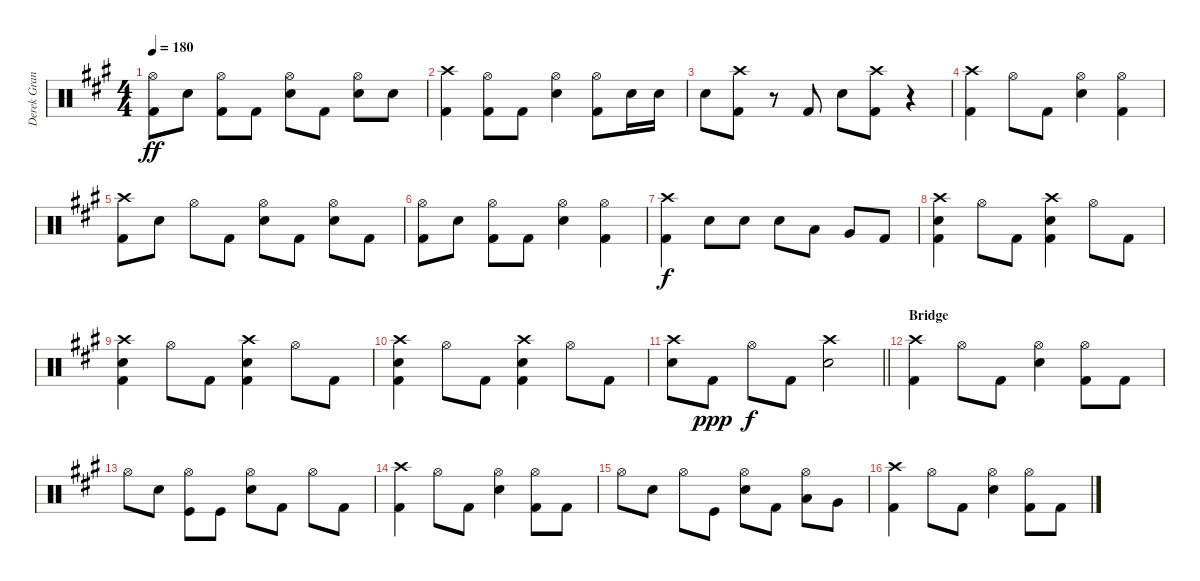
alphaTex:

\track ("Derek Grant - Drums" "Derek Gran") {instrument percussion}
\staff {score}
\articulation defaults
\ts (4 4)
\tempo 180
\clef neutral
\ks a
("Kick (hit) 2" "Hi-Hat (open)").8{dy ff} "Snare (hit) 2".8 ("Kick (hit) 2" "Hi-Hat (open)").8 "Kick (hit) 2".8 ("Snare (hit) 2" "Hi-Hat (open)").8 "Kick (hit) 2".8 ("Snare (hit) 2" "Hi-Hat (open)").8 "Snare (hit) 2".8 |
("Kick (hit) 2" "Crash high (hit)").4 ("Kick (hit) 2" "Hi-Hat (open)").8 "Kick (hit) 2".8 ("Snare (hit) 2" "Hi-Hat (open)").4 ("Kick (hit) 2" "Hi-Hat (open)").8 "Snare (hit) 2".16 "Snare (hit) 2".16 |
"Snare (hit) 2".8 ("Kick (hit) 2" "Crash high (hit)").8 r.8 "Kick (hit) 2".8 "Snare (hit) 2".8 ("Kick (hit) 2" "Crash high (hit)").8 r.4 |
("Kick (hit) 2" "Crash high (hit)").4 "Hi-Hat (open)".8 "Kick (hit) 2".8 ("Snare (hit) 2" "Hi-Hat (open)").4 ("Kick (hit) 2" "Hi-Hat (open)").4 |
("Kick (hit) 2" "Crash high (hit)").8 "Snare (hit) 2".8 "Hi-Hat (open)".8 "Kick (hit) 2".8 ("Snare (hit) 2" "Hi-Hat (open)").8 "Kick (hit) 2".8 ("Snare (hit) 2" "Hi-Hat (open)").8 "Kick (hit) 2".8 |
("Kick (hit) 2" "Hi-Hat (open)").8 "Snare (hit) 2".8 ("Kick (hit) 2" "Hi-Hat (open)").8 "Kick (hit) 2".8 ("Snare (hit) 2" "Hi-Hat (open)").4 ("Kick (hit) 2" "Hi-Hat (open)").4 |
("Crash high (hit)" "Kick (hit) 2").4{dy f} "Snare (hit) 2".8 "Snare (hit) 2".8 "Snare (hit) 2".8 "Low Tom (hit)".8 "Very Low Tom (hit)".8 "Kick (hit) 2".8 |
("Crash high (hit)" "Kick (hit) 2" "Snare (hit) 2").4 "Hi-Hat (open)".8 "Kick (hit) 2".8 ("Crash high (hit)" "Kick (hit) 2" "Snare (hit) 2").4 "Hi-Hat (open)".8 "Kick (hit) 2".8 |
("Crash high (hit)" "Kick (hit) 2" "Snare (hit) 2").4 "Hi-Hat (open)".8 "Kick (hit) 2".8 ("Crash high (hit)" "Kick (hit) 2" "Snare (hit) 2").4 "Hi-Hat (open)".8 "Kick (hit) 2".8 |
("Crash high (hit)" "Kick (hit) 2" "Snare (hit) 2").4 "Hi-Hat (open)".8 "Kick (hit) 2".8 ("Crash high (hit)" "Kick (hit) 2" "Snare (hit) 2").4 "Hi-Hat (open)".8 "Kick (hit) 2".8 |
\barLineRight lightlight
("Crash high (hit)" "Snare (hit) 2").8 "Kick (hit) 2".8{dy ppp} "Hi-Hat (open)".8{dy f} "Kick (hit) 2".8 ("Crash high (hit)" "Snare (hit) 2").2 |
\section ("" "Bridge")
("Kick (hit) 2" "Crash high (hit)").4 "Hi-Hat (open)".8 "Kick (hit) 2".8 ("Snare (hit) 2" "Hi-Hat (open)").4 ("Kick (hit) 2" "Hi-Hat (open)").8 "Kick (hit) 2".8 |
"Hi-Hat (open)".8 "Snare (hit) 2".8 ("Kick (hit)" "Hi-Hat (open)").8 "Kick (hit)".8 ("Hi-Hat (open)" "Snare (hit) 2").8 "Kick (hit) 2".8 "Hi-Hat (open)".8 "Kick (hit) 2".8 |
("Kick (hit) 2" "Crash high (hit)").4 "Hi-Hat (open)".8 "Kick (hit) 2".8 ("Snare (hit) 2" "Hi-Hat (open)").4 ("Kick (hit) 2" "Hi-Hat (open)").8 "Kick (hit) 2".8 |
"Hi-Hat (open)".8 "Snare (hit) 2".8 "Hi-Hat (open)".8 "Kick (hit)".8 ("Hi-Hat (open)" "Snare (hit) 2").8 "Kick (hit) 2".8 ("Hi-Hat (open)" "Low Tom (hit)").8 "Very Low Tom (hit)".8 |
("Kick (hit) 2" "Crash high (hit)").4 "Hi-Hat (open)".8 "Kick (hit) 2".8 ("Snare (hit) 2" "Hi-Hat (open)").4 ("Kick (hit) 2" "Hi-Hat (open)").8 "Kick (hit) 2".8
